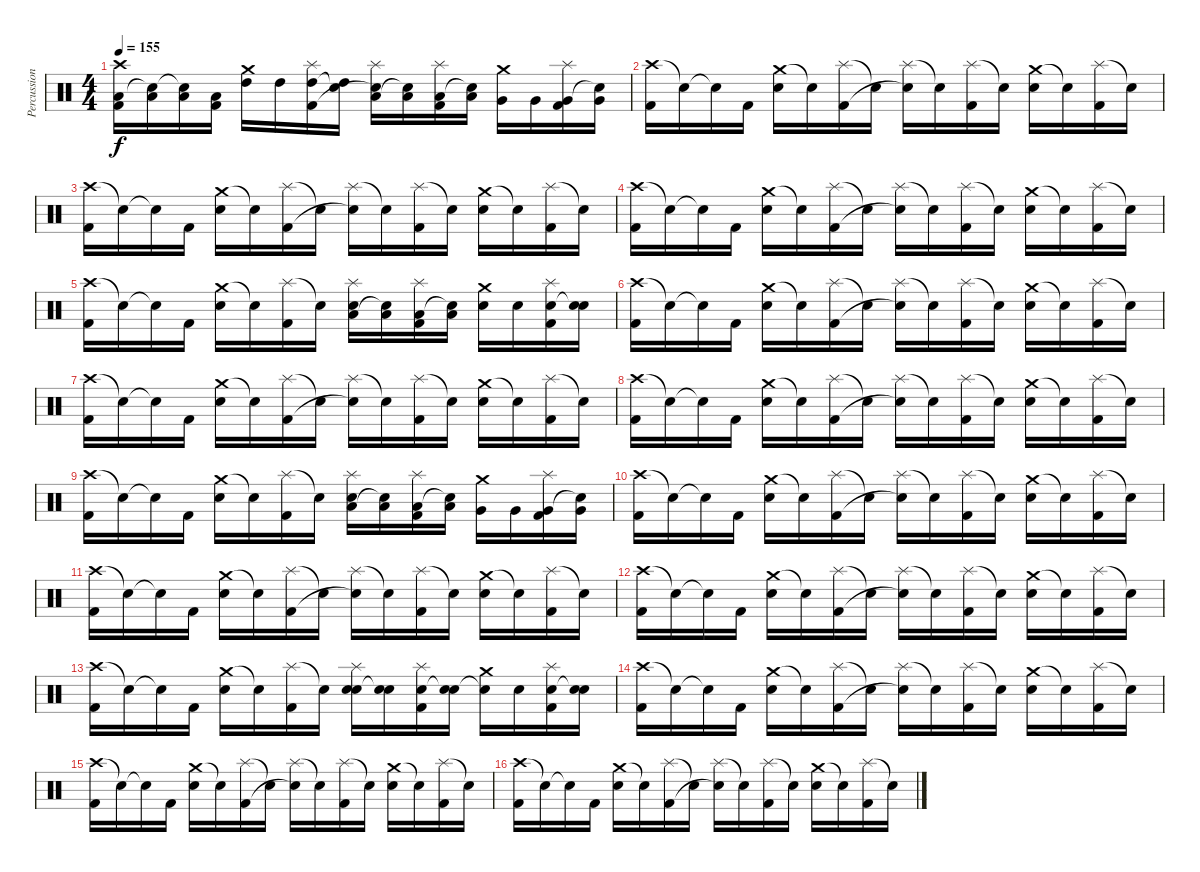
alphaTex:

\track ("Percussion" "Percussion") {instrument percussion}
\staff {score}
\articulation defaults
\ts (4 4)
\tempo 155
\clef neutral
\ks c
("Crash high (hit)" "Low Tom (hit)" "Kick (hit) 2").16{dy f} ("Low Tom (hit)" "Snare (hit)"{t}).16 ("Low Tom (hit)" "Snare (hit)"{t}).16 ("Low Tom (hit)" "Kick (hit) 2").16 ("Crash medium (hit)" "High Tom (hit)").16 "High Tom (hit)".16 ("Splash (hit)" "High Tom (hit)" "Kick (hit) 2").16 ("High Tom (hit)" "Snare (hit)"{t}).16 ("Splash (hit)" "Low Tom (hit)" "Snare (hit)"{t}).16 ("Low Tom (hit)" "Snare (hit)"{t}).16 ("Splash (hit)" "Low Tom (hit)" "Kick (hit) 2").16 ("Low Tom (hit)" "Snare (hit)"{t}).16 ("Crash medium (hit)" "Very Low Tom (hit)").16 "Very Low Tom (hit)".16 ("Splash (hit)" "Very Low Tom (hit)" "Kick (hit) 2").16 ("Very Low Tom (hit)" "Snare (hit)"{t}).16 |
("Crash high (hit)" "Kick (hit) 2").16 "Snare (hit)"{t}.16 "Snare (hit)"{t}.16 "Kick (hit) 2".16 ("Crash medium (hit)" "Snare (hit) 2").16 "Snare (hit)"{t}.16 ("Splash (hit)" "Kick (hit) 2").16 "Snare (hit)"{t}.16 ("Splash (hit)" "Snare (hit)"{t}).16 "Snare (hit)"{t}.16 ("Splash (hit)" "Kick (hit) 2").16 "Snare (hit)"{t}.16 ("Crash medium (hit)" "Snare (hit) 2").16 "Snare (hit)"{t}.16 ("Splash (hit)" "Kick (hit) 2").16 "Snare (hit)"{t}.16 |
("Crash high (hit)" "Kick (hit) 2").16 "Snare (hit)"{t}.16 "Snare (hit)"{t}.16 "Kick (hit) 2".16 ("Crash medium (hit)" "Snare (hit) 2").16 "Snare (hit)"{t}.16 ("Splash (hit)" "Kick (hit) 2").16 "Snare (hit)"{t}.16 ("Splash (hit)" "Snare (hit)"{t}).16 "Snare (hit)"{t}.16 ("Splash (hit)" "Kick (hit) 2").16 "Snare (hit)"{t}.16 ("Crash medium (hit)" "Snare (hit) 2").16 "Snare (hit)"{t}.16 ("Splash (hit)" "Kick (hit) 2").16 "Snare (hit)"{t}.16 |
("Crash high (hit)" "Kick (hit) 2").16 "Snare (hit)"{t}.16 "Snare (hit)"{t}.16 "Kick (hit) 2".16 ("Crash medium (hit)" "Snare (hit) 2").16 "Snare (hit)"{t}.16 ("Splash (hit)" "Kick (hit) 2").16 "Snare (hit)"{t}.16 ("Splash (hit)" "Snare (hit)"{t}).16 "Snare (hit)"{t}.16 ("Splash (hit)" "Kick (hit) 2").16 "Snare (hit)"{t}.16 ("Crash medium (hit)" "Snare (hit) 2").16 "Snare (hit)"{t}.16 ("Splash (hit)" "Kick (hit) 2").16 "Snare (hit)"{t}.16 |
("Crash high (hit)" "Kick (hit) 2").16 "Snare (hit)"{t}.16 "Snare (hit)"{t}.16 "Kick (hit) 2".16 ("Crash medium (hit)" "Snare (hit) 2").16 "Snare (hit)"{t}.16 ("Splash (hit)" "Kick (hit) 2").16 "Snare (hit)"{t}.16 ("Splash (hit)" "Low Tom (hit)" "Snare (hit)").16 ("Low Tom (hit)" "Snare (hit)"{t}).16 ("Splash (hit)" "Low Tom (hit)" "Kick (hit) 2").16 ("Low Tom (hit)" "Snare (hit)"{t}).16 ("Crash medium (hit)" "Snare (hit) 2").16 "Snare (hit) 2".16 ("Splash (hit)" "Snare (hit) 2" "Kick (hit) 2").16 ("Snare (hit) 2" "Snare (hit)"{t}).16 |
("Crash high (hit)" "Kick (hit) 2").16 "Snare (hit)"{t}.16 "Snare (hit)"{t}.16 "Kick (hit) 2".16 ("Crash medium (hit)" "Snare (hit) 2").16 "Snare (hit)"{t}.16 ("Splash (hit)" "Kick (hit) 2").16 "Snare (hit)"{t}.16 ("Splash (hit)" "Snare (hit)"{t}).16 "Snare (hit)"{t}.16 ("Splash (hit)" "Kick (hit) 2").16 "Snare (hit)"{t}.16 ("Crash medium (hit)" "Snare (hit) 2").16 "Snare (hit)"{t}.16 ("Splash (hit)" "Kick (hit) 2").16 "Snare (hit)"{t}.16 |
("Crash high (hit)" "Kick (hit) 2").16 "Snare (hit)"{t}.16 "Snare (hit)"{t}.16 "Kick (hit) 2".16 ("Crash medium (hit)" "Snare (hit) 2").16 "Snare (hit)"{t}.16 ("Splash (hit)" "Kick (hit) 2").16 "Snare (hit)"{t}.16 ("Splash (hit)" "Snare (hit)"{t}).16 "Snare (hit)"{t}.16 ("Splash (hit)" "Kick (hit) 2").16 "Snare (hit)"{t}.16 ("Crash medium (hit)" "Snare (hit) 2").16 "Snare (hit)"{t}.16 ("Splash (hit)" "Kick (hit) 2").16 "Snare (hit)"{t}.16 |
("Crash high (hit)" "Kick (hit) 2").16 "Snare (hit)"{t}.16 "Snare (hit)"{t}.16 "Kick (hit) 2".16 ("Crash medium (hit)" "Snare (hit) 2").16 "Snare (hit)"{t}.16 ("Splash (hit)" "Kick (hit) 2").16 "Snare (hit)"{t}.16 ("Splash (hit)" "Snare (hit)"{t}).16 "Snare (hit)"{t}.16 ("Splash (hit)" "Kick (hit) 2").16 "Snare (hit)"{t}.16 ("Crash medium (hit)" "Snare (hit) 2").16 "Snare (hit)"{t}.16 ("Splash (hit)" "Kick (hit) 2").16 "Snare (hit)"{t}.16 |
("Crash high (hit)" "Kick (hit) 2").16 "Snare (hit)"{t}.16 "Snare (hit)"{t}.16 "Kick (hit) 2".16 ("Crash medium (hit)" "Snare (hit) 2").16 "Snare (hit)"{t}.16 ("Splash (hit)" "Kick (hit) 2").16 "Snare (hit)"{t}.16 ("Splash (hit)" "Low Tom (hit)" "Snare (hit)").16 ("Low Tom (hit)" "Snare (hit)"{t}).16 ("Splash (hit)" "Low Tom (hit)" "Kick (hit) 2").16 ("Low Tom (hit)" "Snare (hit)"{t}).16 ("Crash medium (hit)" "Very Low Tom (hit)").16 "Very Low Tom (hit)".16 ("Splash (hit)" "Very Low Tom (hit)" "Kick (hit) 2").16 ("Very Low Tom (hit)" "Snare (hit)"{t}).16 |
("Crash high (hit)" "Kick (hit) 2").16 "Snare (hit)"{t}.16 "Snare (hit)"{t}.16 "Kick (hit) 2".16 ("Crash medium (hit)" "Snare (hit) 2").16 "Snare (hit)"{t}.16 ("Splash (hit)" "Kick (hit) 2").16 "Snare (hit)"{t}.16 ("Splash (hit)" "Snare (hit)"{t}).16 "Snare (hit)"{t}.16 ("Splash (hit)" "Kick (hit) 2").16 "Snare (hit)"{t}.16 ("Crash medium (hit)" "Snare (hit) 2").16 "Snare (hit)"{t}.16 ("Splash (hit)" "Kick (hit) 2").16 "Snare (hit)"{t}.16 |
("Crash high (hit)" "Kick (hit) 2").16 "Snare (hit)"{t}.16 "Snare (hit)"{t}.16 "Kick (hit) 2".16 ("Crash medium (hit)" "Snare (hit) 2").16 "Snare (hit)"{t}.16 ("Splash (hit)" "Kick (hit) 2").16 "Snare (hit)"{t}.16 ("Splash (hit)" "Snare (hit)"{t}).16 "Snare (hit)"{t}.16 ("Splash (hit)" "Kick (hit) 2").16 "Snare (hit)"{t}.16 ("Crash medium (hit)" "Snare (hit) 2").16 "Snare (hit)"{t}.16 ("Splash (hit)" "Kick (hit) 2").16 "Snare (hit)"{t}.16 |
("Crash high (hit)" "Kick (hit) 2").16 "Snare (hit)"{t}.16 "Snare (hit)"{t}.16 "Kick (hit) 2".16 ("Crash medium (hit)" "Snare (hit) 2").16 "Snare (hit)"{t}.16 ("Splash (hit)" "Kick (hit) 2").16 "Snare (hit)"{t}.16 ("Splash (hit)" "Snare (hit)"{t}).16 "Snare (hit)"{t}.16 ("Splash (hit)" "Kick (hit) 2").16 "Snare (hit)"{t}.16 ("Crash medium (hit)" "Snare (hit) 2").16 "Snare (hit)"{t}.16 ("Splash (hit)" "Kick (hit) 2").16 "Snare (hit)"{t}.16 |
("Crash high (hit)" "Kick (hit) 2").16 "Snare (hit)"{t}.16 "Snare (hit)"{t}.16 "Kick (hit) 2".16 ("Crash medium (hit)" "Snare (hit) 2").16 "Snare (hit)"{t}.16 ("Splash (hit)" "Kick (hit) 2").16 "Snare (hit)"{t}.16 ("Splash (hit)" "Snare (hit) 2" "Snare (hit)").16 ("Snare (hit) 2" "Snare (hit)"{t}).16 ("Splash (hit)" "Snare (hit) 2" "Kick (hit) 2").16 ("Snare (hit) 2" "Snare (hit)"{t}).16 ("Crash medium (hit)" "Snare (hit) 2"{t}).16 "Snare (hit) 2".16 ("Splash (hit)" "Snare (hit) 2" "Kick (hit) 2").16 ("Snare (hit) 2" "Snare (hit)"{t}).16 |
("Crash high (hit)" "Kick (hit) 2").16 "Snare (hit)"{t}.16 "Snare (hit)"{t}.16 "Kick (hit) 2".16 ("Crash medium (hit)" "Snare (hit) 2").16 "Snare (hit)"{t}.16 ("Splash (hit)" "Kick (hit) 2").16 "Snare (hit)"{t}.16 ("Splash (hit)" "Snare (hit)"{t}).16 "Snare (hit)"{t}.16 ("Splash (hit)" "Kick (hit) 2").16 "Snare (hit)"{t}.16 ("Crash medium (hit)" "Snare (hit) 2").16 "Snare (hit)"{t}.16 ("Splash (hit)" "Kick (hit) 2").16 "Snare (hit)"{t}.16 |
("Crash high (hit)" "Kick (hit) 2").16 "Snare (hit)"{t}.16 "Snare (hit)"{t}.16 "Kick (hit) 2".16 ("Crash medium (hit)" "Snare (hit) 2").16 "Snare (hit)"{t}.16 ("Splash (hit)" "Kick (hit) 2").16 "Snare (hit)"{t}.16 ("Splash (hit)" "Snare (hit)"{t}).16 "Snare (hit)"{t}.16 ("Splash (hit)" "Kick (hit) 2").16 "Snare (hit)"{t}.16 ("Crash medium (hit)" "Snare (hit) 2").16 "Snare (hit)"{t}.16 ("Splash (hit)" "Kick (hit) 2").16 "Snare (hit)"{t}.16 |
("Crash high (hit)" "Kick (hit) 2").16 "Snare (hit)"{t}.16 "Snare (hit)"{t}.16 "Kick (hit) 2".16 ("Crash medium (hit)" "Snare (hit) 2").16 "Snare (hit)"{t}.16 ("Splash (hit)" "Kick (hit) 2").16 "Snare (hit)"{t}.16 ("Splash (hit)" "Snare (hit)"{t}).16 "Snare (hit)"{t}.16 ("Splash (hit)" "Kick (hit) 2").16 "Snare (hit)"{t}.16 ("Crash medium (hit)" "Snare (hit) 2").16 "Snare (hit)"{t}.16 ("Splash (hit)" "Kick (hit) 2").16 "Snare (hit)"{t}.16
